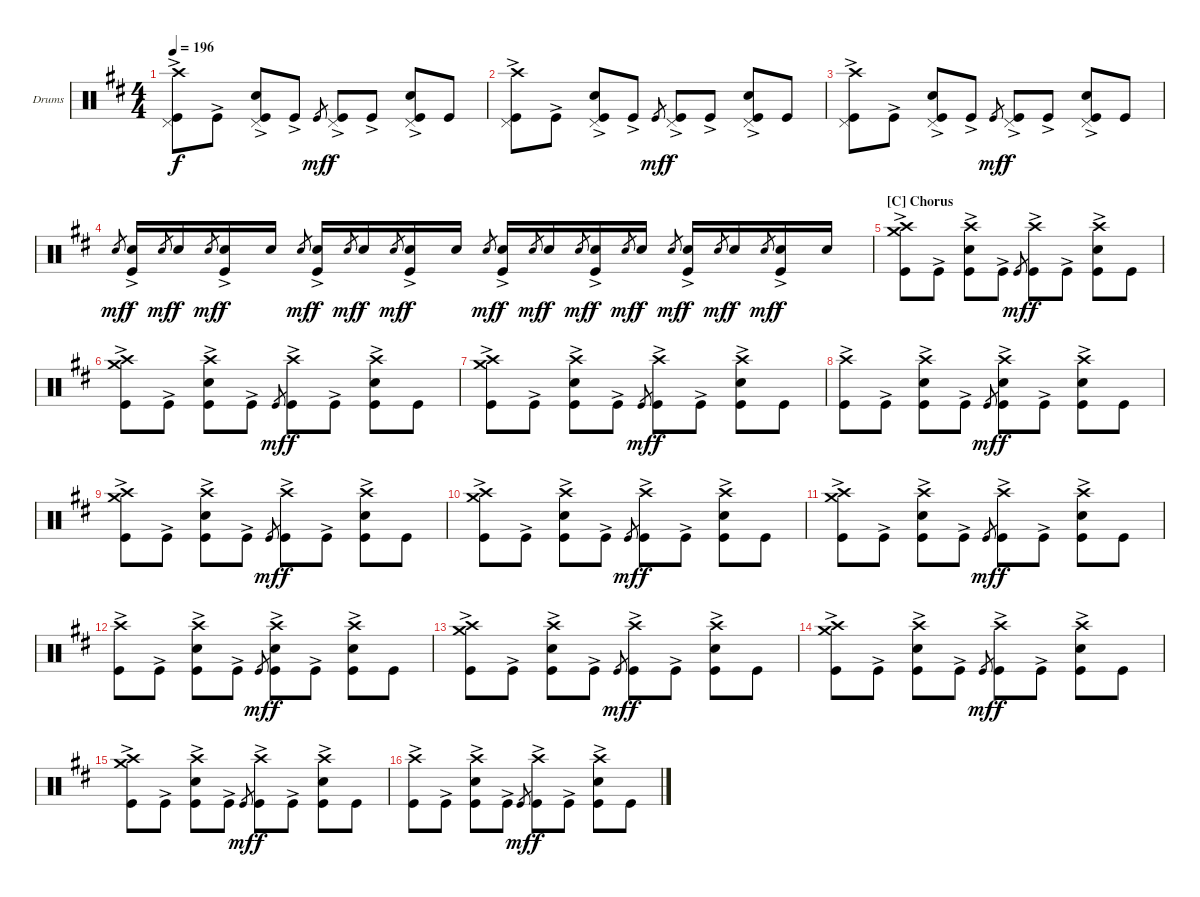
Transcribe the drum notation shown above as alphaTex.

\defaultSystemsLayout 4
\bracketExtendMode groupsimilarinstruments
\firstSystemTrackNameOrientation horizontal
\otherSystemsTrackNameOrientation horizontal
\track ("Drumkit" "Drums") {instrument percussion}
\staff {score}
\articulation defaults
\ts (4 4)
\tempo 196
\clef neutral
\ks d
("Crash high (hit)" "Pedal Hi-Hat (hit)" "Kick (hit)"{ac}).8{dy f} "Kick (hit)"{ac}.8 ("Pedal Hi-Hat (hit)" "Snare (hit) 2" "Kick (hit)"{ac}).8 "Kick (hit)"{ac}.8 "Kick (hit)".8{gr dy mf} ("Pedal Hi-Hat (hit)" "Kick (hit)"{ac}).8{dy f} "Kick (hit)"{ac}.8 ("Pedal Hi-Hat (hit)" "Snare (hit) 2" "Kick (hit)"{ac}).8 "Kick (hit)".8 |
("Crash high (hit)" "Pedal Hi-Hat (hit)" "Kick (hit)"{ac}).8 "Kick (hit)"{ac}.8 ("Pedal Hi-Hat (hit)" "Snare (hit) 2" "Kick (hit)"{ac}).8 "Kick (hit)"{ac}.8 "Kick (hit)".8{gr dy mf} ("Pedal Hi-Hat (hit)" "Kick (hit)"{ac}).8{dy f} "Kick (hit)"{ac}.8 ("Pedal Hi-Hat (hit)" "Snare (hit) 2" "Kick (hit)"{ac}).8 "Kick (hit)".8 |
("Crash high (hit)" "Pedal Hi-Hat (hit)" "Kick (hit)"{ac}).8 "Kick (hit)"{ac}.8 ("Pedal Hi-Hat (hit)" "Snare (hit) 2" "Kick (hit)"{ac}).8 "Kick (hit)"{ac}.8 "Kick (hit)".8{gr dy mf} ("Pedal Hi-Hat (hit)" "Kick (hit)"{ac}).8{dy f} "Kick (hit)"{ac}.8 ("Pedal Hi-Hat (hit)" "Snare (hit) 2" "Kick (hit)"{ac}).8 "Kick (hit)".8 |
"Snare (hit) 2".8{gr dy mf} ("Snare (hit) 2" "Kick (hit)"{ac}).16{dy f} "Snare (hit) 2".8{gr dy mf} "Snare (hit) 2".16{dy f} "Snare (hit) 2".8{gr dy mf} ("Snare (hit) 2" "Kick (hit)"{ac}).16{dy f} "Snare (hit) 2".16 "Snare (hit) 2".8{gr dy mf} ("Snare (hit) 2" "Kick (hit)"{ac}).16{dy f} "Snare (hit) 2".8{gr dy mf} "Snare (hit) 2".16{dy f} "Snare (hit) 2".8{gr dy mf} ("Snare (hit) 2" "Kick (hit)"{ac}).16{dy f} "Snare (hit) 2".16 "Snare (hit) 2".8{gr dy mf} ("Snare (hit) 2" "Kick (hit)"{ac}).16{dy f} "Snare (hit) 2".8{gr dy mf} "Snare (hit) 2".16{dy f} "Snare (hit) 2".8{gr dy mf} ("Snare (hit) 2" "Kick (hit)"{ac}).16{dy f} "Snare (hit) 2".8{gr dy mf} "Snare (hit) 2".16{dy f} "Snare (hit) 2".8{gr dy mf} ("Snare (hit) 2" "Kick (hit)"{ac}).16{dy f} "Snare (hit) 2".8{gr dy mf} "Snare (hit) 2".16{dy f} "Snare (hit) 2".8{gr dy mf} ("Snare (hit) 2" "Kick (hit)"{ac}).16{dy f} "Snare (hit) 2".16 |
\section ("C" "Chorus")
("Crash medium (hit)" "Crash high (hit)" "Kick (hit)"{ac}).8 "Kick (hit)"{ac}.8 ("Crash high (hit)" "Snare (hit) 2" "Kick (hit)"{ac}).8 "Kick (hit)"{ac}.8 "Kick (hit)".8{gr dy mf} ("Crash high (hit)" "Kick (hit)"{ac}).8{dy f} "Kick (hit)"{ac}.8 ("Crash high (hit)" "Snare (hit) 2" "Kick (hit)"{ac}).8 "Kick (hit)".8 |
("Crash medium (hit)" "Crash high (hit)" "Kick (hit)"{ac}).8 "Kick (hit)"{ac}.8 ("Crash high (hit)" "Snare (hit) 2" "Kick (hit)"{ac}).8 "Kick (hit)"{ac}.8 "Kick (hit)".8{gr dy mf} ("Crash high (hit)" "Kick (hit)"{ac}).8{dy f} "Kick (hit)"{ac}.8 ("Crash high (hit)" "Snare (hit) 2" "Kick (hit)"{ac}).8 "Kick (hit)".8 |
("Crash medium (hit)" "Crash high (hit)" "Kick (hit)"{ac}).8 "Kick (hit)"{ac}.8 ("Crash high (hit)" "Snare (hit) 2" "Kick (hit)"{ac}).8 "Kick (hit)"{ac}.8 "Kick (hit)".8{gr dy mf} ("Crash high (hit)" "Kick (hit)"{ac}).8{dy f} "Kick (hit)"{ac}.8 ("Crash high (hit)" "Snare (hit) 2" "Kick (hit)"{ac}).8 "Kick (hit)".8 |
("Crash high (hit)" "Kick (hit)"{ac}).8 "Kick (hit)"{ac}.8 ("Crash high (hit)" "Snare (hit) 2" "Kick (hit)"{ac}).8 "Kick (hit)"{ac}.8 "Kick (hit)".8{gr dy mf} ("Crash high (hit)" "Snare (hit) 2" "Kick (hit)"{ac}).8{dy f} "Kick (hit)"{ac}.8 ("Crash high (hit)" "Snare (hit) 2" "Kick (hit)"{ac}).8 "Kick (hit)".8 |
("Crash medium (hit)" "Crash high (hit)" "Kick (hit)"{ac}).8 "Kick (hit)"{ac}.8 ("Crash high (hit)" "Snare (hit) 2" "Kick (hit)"{ac}).8 "Kick (hit)"{ac}.8 "Kick (hit)".8{gr dy mf} ("Crash high (hit)" "Kick (hit)"{ac}).8{dy f} "Kick (hit)"{ac}.8 ("Crash high (hit)" "Snare (hit) 2" "Kick (hit)"{ac}).8 "Kick (hit)".8 |
("Crash medium (hit)" "Crash high (hit)" "Kick (hit)"{ac}).8 "Kick (hit)"{ac}.8 ("Crash high (hit)" "Snare (hit) 2" "Kick (hit)"{ac}).8 "Kick (hit)"{ac}.8 "Kick (hit)".8{gr dy mf} ("Crash high (hit)" "Kick (hit)"{ac}).8{dy f} "Kick (hit)"{ac}.8 ("Crash high (hit)" "Snare (hit) 2" "Kick (hit)"{ac}).8 "Kick (hit)".8 |
("Crash medium (hit)" "Crash high (hit)" "Kick (hit)"{ac}).8 "Kick (hit)"{ac}.8 ("Crash high (hit)" "Snare (hit) 2" "Kick (hit)"{ac}).8 "Kick (hit)"{ac}.8 "Kick (hit)".8{gr dy mf} ("Crash high (hit)" "Kick (hit)"{ac}).8{dy f} "Kick (hit)"{ac}.8 ("Crash high (hit)" "Snare (hit) 2" "Kick (hit)"{ac}).8 "Kick (hit)".8 |
("Crash high (hit)" "Kick (hit)"{ac}).8 "Kick (hit)"{ac}.8 ("Crash high (hit)" "Snare (hit) 2" "Kick (hit)"{ac}).8 "Kick (hit)"{ac}.8 "Kick (hit)".8{gr dy mf} ("Crash high (hit)" "Snare (hit) 2" "Kick (hit)"{ac}).8{dy f} "Kick (hit)"{ac}.8 ("Crash high (hit)" "Snare (hit) 2" "Kick (hit)"{ac}).8 "Kick (hit)".8 |
("Crash medium (hit)" "Crash high (hit)" "Kick (hit)"{ac}).8 "Kick (hit)"{ac}.8 ("Crash high (hit)" "Snare (hit) 2" "Kick (hit)"{ac}).8 "Kick (hit)"{ac}.8 "Kick (hit)".8{gr dy mf} ("Crash high (hit)" "Kick (hit)"{ac}).8{dy f} "Kick (hit)"{ac}.8 ("Crash high (hit)" "Snare (hit) 2" "Kick (hit)"{ac}).8 "Kick (hit)".8 |
("Crash medium (hit)" "Crash high (hit)" "Kick (hit)"{ac}).8 "Kick (hit)"{ac}.8 ("Crash high (hit)" "Snare (hit) 2" "Kick (hit)"{ac}).8 "Kick (hit)"{ac}.8 "Kick (hit)".8{gr dy mf} ("Crash high (hit)" "Kick (hit)"{ac}).8{dy f} "Kick (hit)"{ac}.8 ("Crash high (hit)" "Snare (hit) 2" "Kick (hit)"{ac}).8 "Kick (hit)".8 |
("Crash medium (hit)" "Crash high (hit)" "Kick (hit)"{ac}).8 "Kick (hit)"{ac}.8 ("Crash high (hit)" "Snare (hit) 2" "Kick (hit)"{ac}).8 "Kick (hit)"{ac}.8 "Kick (hit)".8{gr dy mf} ("Crash high (hit)" "Kick (hit)"{ac}).8{dy f} "Kick (hit)"{ac}.8 ("Crash high (hit)" "Snare (hit) 2" "Kick (hit)"{ac}).8 "Kick (hit)".8 |
("Crash high (hit)" "Kick (hit)"{ac}).8 "Kick (hit)"{ac}.8 ("Crash high (hit)" "Snare (hit) 2" "Kick (hit)"{ac}).8 "Kick (hit)"{ac}.8 "Kick (hit)".8{gr dy mf} ("Crash high (hit)" "Kick (hit)"{ac}).8{dy f} "Kick (hit)"{ac}.8 ("Crash high (hit)" "Snare (hit) 2" "Kick (hit)"{ac}).8 "Kick (hit)".8
